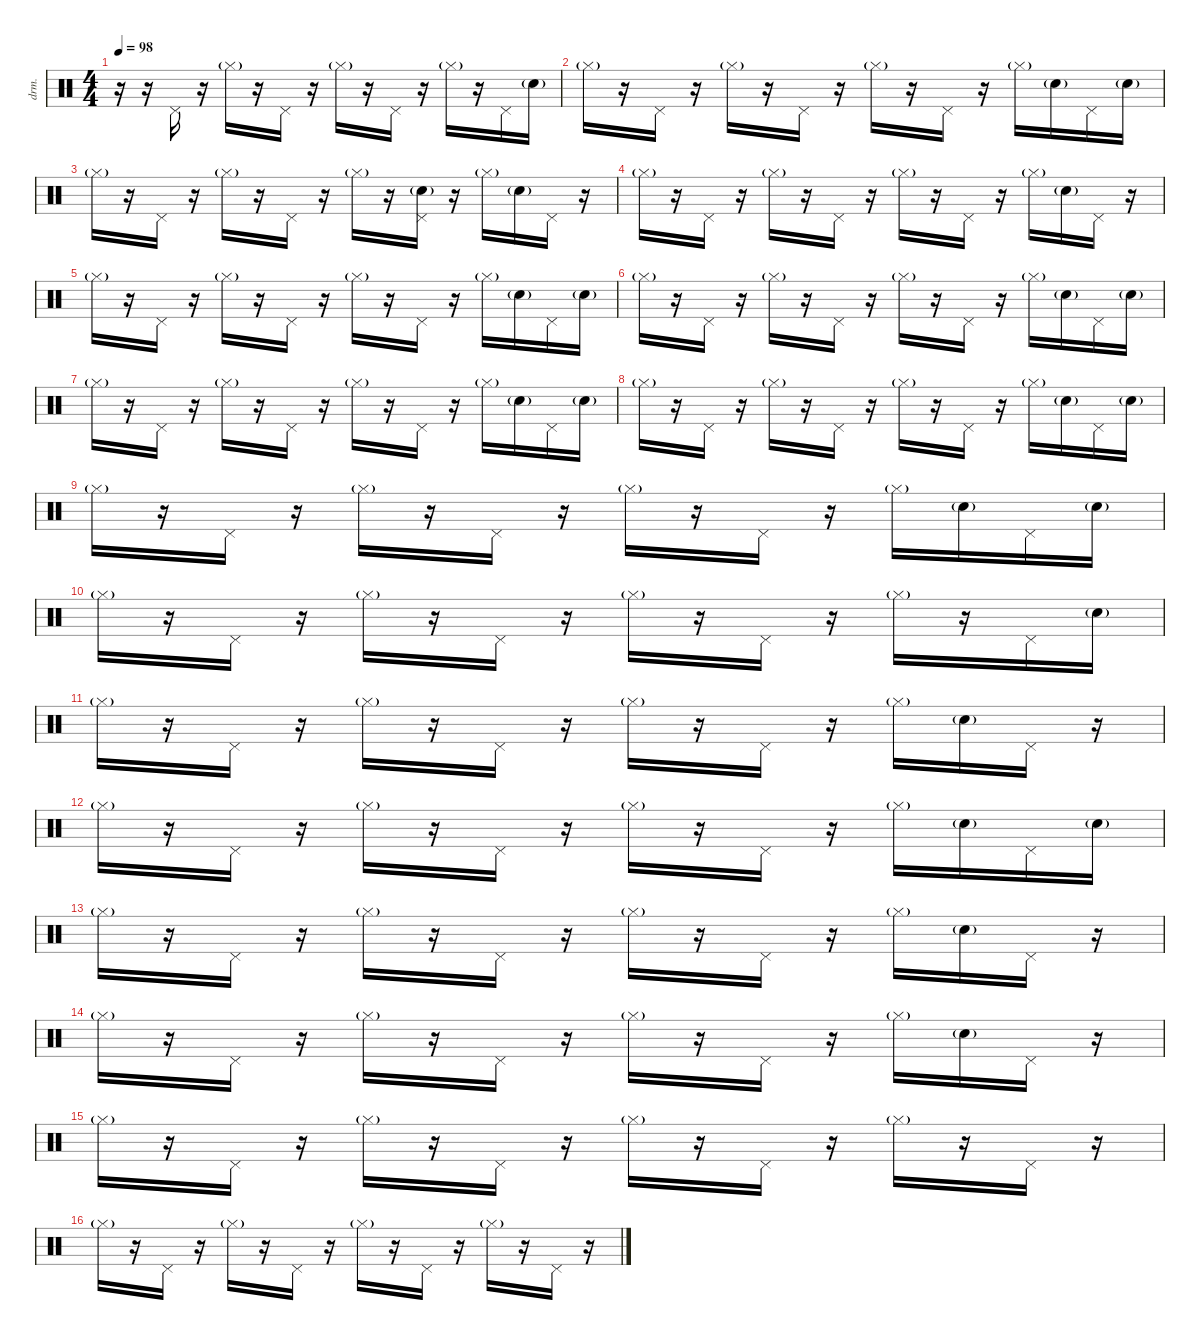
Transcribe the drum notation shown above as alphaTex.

\defaultSystemsLayout 4
\hideDynamics
\bracketExtendMode nobrackets
\otherSystemsTrackNameOrientation horizontal
\track ("Duris Maxwell" "drm.") {instrument percussion}
\staff {score}
\articulation defaults
\ts (4 4)
\tempo 98
\clef neutral
\ks c
r.16{dy f beam Down} r.16{beam Down} "Pedal Hi-Hat (hit)".16{beam Up} r.16{beam Up} "Hi-Hat (closed)"{g}.16{beam Down} r.16{beam Down} "Pedal Hi-Hat (hit)".16{beam Down} r.16{beam Down} "Hi-Hat (closed)"{g}.16{beam Down} r.16{beam Down} "Pedal Hi-Hat (hit)".16{beam Down} r.16{beam Down} "Hi-Hat (closed)"{g}.16{beam Down} r.16{beam Down} "Pedal Hi-Hat (hit)".16{beam Down} "Snare (hit) 2"{g}.16{beam Down} |
"Hi-Hat (closed)"{g}.16{beam Down} r.16{beam Down} "Pedal Hi-Hat (hit)".16{beam Down} r.16{beam Down} "Hi-Hat (closed)"{g}.16{beam Down} r.16{beam Down} "Pedal Hi-Hat (hit)".16{beam Down} r.16{beam Down} "Hi-Hat (closed)"{g}.16{beam Down} r.16{beam Down} "Pedal Hi-Hat (hit)".16{beam Down} r.16{beam Down} "Hi-Hat (closed)"{g}.16{beam Down} "Snare (hit) 2"{g}.16{beam Down} "Pedal Hi-Hat (hit)".16{beam Down} "Snare (hit) 2"{g}.16{beam Down} |
"Hi-Hat (closed)"{g}.16{beam Down} r.16{beam Down} "Pedal Hi-Hat (hit)".16{beam Down} r.16{beam Down} "Hi-Hat (closed)"{g}.16{beam Down} r.16{beam Down} "Pedal Hi-Hat (hit)".16{beam Down} r.16{beam Down} "Hi-Hat (closed)"{g}.16{beam Down} r.16{beam Down} ("Pedal Hi-Hat (hit)" "Snare (hit) 2"{g}).16{beam Down} r.16{beam Down} "Hi-Hat (closed)"{g}.16{beam Down} "Snare (hit) 2"{g}.16{beam Down} "Pedal Hi-Hat (hit)".16{beam Down} r.16{beam Down} |
"Hi-Hat (closed)"{g}.16{beam Down} r.16{beam Down} "Pedal Hi-Hat (hit)".16{beam Down} r.16{beam Down} "Hi-Hat (closed)"{g}.16{beam Down} r.16{beam Down} "Pedal Hi-Hat (hit)".16{beam Down} r.16{beam Down} "Hi-Hat (closed)"{g}.16{beam Down} r.16{beam Down} "Pedal Hi-Hat (hit)".16{beam Down} r.16{beam Down} "Hi-Hat (closed)"{g}.16{beam Down} "Snare (hit) 2"{g}.16{beam Down} "Pedal Hi-Hat (hit)".16{beam Down} r.16{beam Down} |
"Hi-Hat (closed)"{g}.16{beam Down} r.16{beam Down} "Pedal Hi-Hat (hit)".16{beam Down} r.16{beam Down} "Hi-Hat (closed)"{g}.16{beam Down} r.16{beam Down} "Pedal Hi-Hat (hit)".16{beam Down} r.16{beam Down} "Hi-Hat (closed)"{g}.16{beam Down} r.16{beam Down} "Pedal Hi-Hat (hit)".16{beam Down} r.16{beam Down} "Hi-Hat (closed)"{g}.16{beam Down} "Snare (hit) 2"{g}.16{beam Down} "Pedal Hi-Hat (hit)".16{beam Down} "Snare (hit) 2"{g}.16{beam Down} |
"Hi-Hat (closed)"{g}.16{beam Down} r.16{beam Down} "Pedal Hi-Hat (hit)".16{beam Down} r.16{beam Down} "Hi-Hat (closed)"{g}.16{beam Down} r.16{beam Down} "Pedal Hi-Hat (hit)".16{beam Down} r.16{beam Down} "Hi-Hat (closed)"{g}.16{beam Down} r.16{beam Down} "Pedal Hi-Hat (hit)".16{beam Down} r.16{beam Down} "Hi-Hat (closed)"{g}.16{beam Down} "Snare (hit) 2"{g}.16{beam Down} "Pedal Hi-Hat (hit)".16{beam Down} "Snare (hit) 2"{g}.16{beam Down} |
"Hi-Hat (closed)"{g}.16{beam Down} r.16{beam Down} "Pedal Hi-Hat (hit)".16{beam Down} r.16{beam Down} "Hi-Hat (closed)"{g}.16{beam Down} r.16{beam Down} "Pedal Hi-Hat (hit)".16{beam Down} r.16{beam Down} "Hi-Hat (closed)"{g}.16{beam Down} r.16{beam Down} "Pedal Hi-Hat (hit)".16{beam Down} r.16{beam Down} "Hi-Hat (closed)"{g}.16{beam Down} "Snare (hit) 2"{g}.16{beam Down} "Pedal Hi-Hat (hit)".16{beam Down} "Snare (hit) 2"{g}.16{beam Down} |
"Hi-Hat (closed)"{g}.16{beam Down} r.16{beam Down} "Pedal Hi-Hat (hit)".16{beam Down} r.16{beam Down} "Hi-Hat (closed)"{g}.16{beam Down} r.16{beam Down} "Pedal Hi-Hat (hit)".16{beam Down} r.16{beam Down} "Hi-Hat (closed)"{g}.16{beam Down} r.16{beam Down} "Pedal Hi-Hat (hit)".16{beam Down} r.16{beam Down} "Hi-Hat (closed)"{g}.16{beam Down} "Snare (hit) 2"{g}.16{beam Down} "Pedal Hi-Hat (hit)".16{beam Down} "Snare (hit) 2"{g}.16{beam Down} |
"Hi-Hat (closed)"{g}.16{beam Down} r.16{beam Down} "Pedal Hi-Hat (hit)".16{beam Down} r.16{beam Down} "Hi-Hat (closed)"{g}.16{beam Down} r.16{beam Down} "Pedal Hi-Hat (hit)".16{beam Down} r.16{beam Down} "Hi-Hat (closed)"{g}.16{beam Down} r.16{beam Down} "Pedal Hi-Hat (hit)".16{beam Down} r.16{beam Down} "Hi-Hat (closed)"{g}.16{beam Down} "Snare (hit) 2"{g}.16{beam Down} "Pedal Hi-Hat (hit)".16{beam Down} "Snare (hit) 2"{g}.16{beam Down} |
"Hi-Hat (closed)"{g}.16{beam Down} r.16{beam Down} "Pedal Hi-Hat (hit)".16{beam Down} r.16{beam Down} "Hi-Hat (closed)"{g}.16{beam Down} r.16{beam Down} "Pedal Hi-Hat (hit)".16{beam Down} r.16{beam Down} "Hi-Hat (closed)"{g}.16{beam Down} r.16{beam Down} "Pedal Hi-Hat (hit)".16{beam Down} r.16{beam Down} "Hi-Hat (closed)"{g}.16{beam Down} r.16{beam Down} "Pedal Hi-Hat (hit)".16{beam Down} "Snare (hit) 2"{g}.16{beam Down} |
"Hi-Hat (closed)"{g}.16{beam Down} r.16{beam Down} "Pedal Hi-Hat (hit)".16{beam Down} r.16{beam Down} "Hi-Hat (closed)"{g}.16{beam Down} r.16{beam Down} "Pedal Hi-Hat (hit)".16{beam Down} r.16{beam Down} "Hi-Hat (closed)"{g}.16{beam Down} r.16{beam Down} "Pedal Hi-Hat (hit)".16{beam Down} r.16{beam Down} "Hi-Hat (closed)"{g}.16{beam Down} "Snare (hit) 2"{g}.16{beam Down} "Pedal Hi-Hat (hit)".16{beam Down} r.16{beam Down} |
"Hi-Hat (closed)"{g}.16{beam Down} r.16{beam Down} "Pedal Hi-Hat (hit)".16{beam Down} r.16{beam Down} "Hi-Hat (closed)"{g}.16{beam Down} r.16{beam Down} "Pedal Hi-Hat (hit)".16{beam Down} r.16{beam Down} "Hi-Hat (closed)"{g}.16{beam Down} r.16{beam Down} "Pedal Hi-Hat (hit)".16{beam Down} r.16{beam Down} "Hi-Hat (closed)"{g}.16{beam Down} "Snare (hit) 2"{g}.16{beam Down} "Pedal Hi-Hat (hit)".16{beam Down} "Snare (hit) 2"{g}.16{beam Down} |
"Hi-Hat (closed)"{g}.16{beam Down} r.16{beam Down} "Pedal Hi-Hat (hit)".16{beam Down} r.16{beam Down} "Hi-Hat (closed)"{g}.16{beam Down} r.16{beam Down} "Pedal Hi-Hat (hit)".16{beam Down} r.16{beam Down} "Hi-Hat (closed)"{g}.16{beam Down} r.16{beam Down} "Pedal Hi-Hat (hit)".16{beam Down} r.16{beam Down} "Hi-Hat (closed)"{g}.16{beam Down} "Snare (hit) 2"{g}.16{beam Down} "Pedal Hi-Hat (hit)".16{beam Down} r.16{beam Down} |
"Hi-Hat (closed)"{g}.16{beam Down} r.16{beam Down} "Pedal Hi-Hat (hit)".16{beam Down} r.16{beam Down} "Hi-Hat (closed)"{g}.16{beam Down} r.16{beam Down} "Pedal Hi-Hat (hit)".16{beam Down} r.16{beam Down} "Hi-Hat (closed)"{g}.16{beam Down} r.16{beam Down} "Pedal Hi-Hat (hit)".16{beam Down} r.16{beam Down} "Hi-Hat (closed)"{g}.16{beam Down} "Snare (hit) 2"{g}.16{beam Down} "Pedal Hi-Hat (hit)".16{beam Down} r.16{beam Down} |
"Hi-Hat (closed)"{g}.16{beam Down} r.16{beam Down} "Pedal Hi-Hat (hit)".16{beam Down} r.16{beam Down} "Hi-Hat (closed)"{g}.16{beam Down} r.16{beam Down} "Pedal Hi-Hat (hit)".16{beam Down} r.16{beam Down} "Hi-Hat (closed)"{g}.16{beam Down} r.16{beam Down} "Pedal Hi-Hat (hit)".16{beam Down} r.16{beam Down} "Hi-Hat (closed)"{g}.16{beam Down} r.16{beam Down} "Pedal Hi-Hat (hit)".16{beam Down} r.16{beam Down} |
"Hi-Hat (closed)"{g}.16{beam Down} r.16{beam Down} "Pedal Hi-Hat (hit)".16{beam Down} r.16{beam Down} "Hi-Hat (closed)"{g}.16{beam Down} r.16{beam Down} "Pedal Hi-Hat (hit)".16{beam Down} r.16{beam Down} "Hi-Hat (closed)"{g}.16{beam Down} r.16{beam Down} "Pedal Hi-Hat (hit)".16{beam Down} r.16{beam Down} "Hi-Hat (closed)"{g}.16{beam Down} r.16{beam Down} "Pedal Hi-Hat (hit)".16{beam Down} r.16{beam Down}
